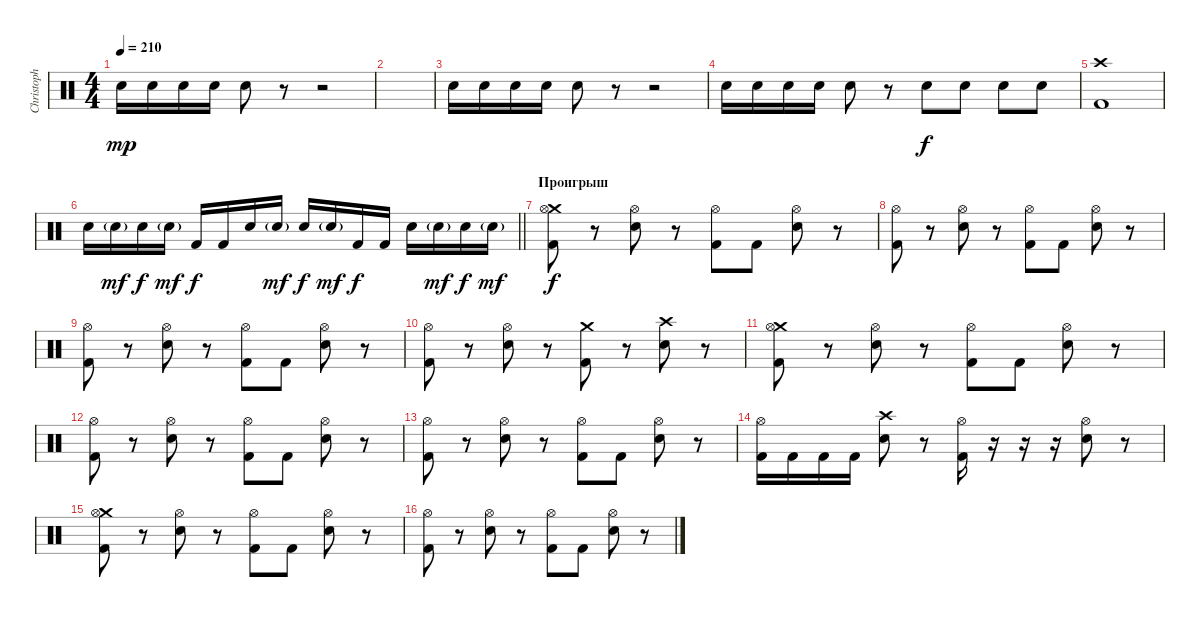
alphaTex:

\track ("Christoph Schneider" "Christoph ") {instrument percussion}
\staff {score}
\articulation defaults
\ts (4 4)
\tempo 210
\clef neutral
\ks c "Electric Snare (hit)".16{dy mp} "Electric Snare (hit)".16 "Electric Snare (hit)".16 "Electric Snare (hit)".16 "Electric Snare (hit)".8
r.8 r.2 |
|
"Electric Snare (hit)".16 "Electric Snare (hit)".16 "Electric Snare (hit)".16 "Electric Snare (hit)".16 "Electric Snare (hit)".8 r.8 r.2 |
"Electric Snare (hit)".16 "Electric Snare (hit)".16 "Electric Snare (hit)".16 "Electric Snare (hit)".16 "Electric Snare (hit)".8 r.8 "Electric Snare (hit)".8{dy f} "Electric Snare (hit)".8 "Electric Snare (hit)".8 "Electric Snare (hit)".8 |
("Crash high (hit)" "Kick (hit) 2").1 |
\barLineRight lightlight "Electric Snare (hit)".16 "Electric Snare (hit)"{g}.16{dy mf} "Electric Snare (hit)".16{dy f} "Electric Snare (hit)"{g}.16{dy mf} "Kick (hit) 2".16{dy f} "Kick (hit) 2".16 "Electric Snare (hit)".16 "Electric Snare (hit)"{g}.16{dy mf} "Electric Snare (hit)".16{dy f} "Electric Snare (hit)"{g}.16{dy mf} "Kick (hit) 2".16{dy f} "Kick (hit) 2".16 "Electric Snare (hit)".16 "Electric Snare (hit)"{g}.16{dy mf} "Electric Snare (hit)".16{dy f} "Electric Snare (hit)"{g}.16{dy mf}
|
\section ("" "Проигрыш")
("Crash medium (hit)" "Kick (hit) 2" "Hi-Hat (open)").8{dy f} r.8 ("Hi-Hat (open)" "Electric Snare (hit)").8 r.8 ("Hi-Hat (open)" "Kick (hit) 2").8 "Kick (hit) 2".8 ("Hi-Hat (open)" "Electric Snare (hit)").8 r.8 |
("Hi-Hat (open)" "Kick (hit) 2").8 r.8 ("Hi-Hat (open)" "Electric Snare (hit)").8 r.8 ("Hi-Hat (open)" "Kick (hit) 2").8 "Kick (hit) 2".8 ("Hi-Hat (open)" "Electric Snare (hit)").8 r.8 |
("Hi-Hat (open)" "Kick (hit) 2").8 r.8 ("Hi-Hat (open)" "Electric Snare (hit)").8 r.8 ("Hi-Hat (open)" "Kick (hit) 2").8 "Kick (hit) 2".8 ("Hi-Hat (open)" "Electric Snare (hit)").8 r.8 |
("Hi-Hat (open)" "Kick (hit) 2").8 r.8 ("Hi-Hat (open)" "Electric Snare (hit)").8 r.8 ("Crash medium (hit)" "Kick (hit) 2").8 r.8 ("Crash high (hit)" "Electric Snare (hit)").8 r.8 |
("Crash medium (hit)" "Kick (hit) 2" "Hi-Hat (open)").8 r.8 ("Hi-Hat (open)" "Electric Snare (hit)").8 r.8 ("Hi-Hat (open)" "Kick (hit) 2").8 "Kick (hit) 2".8 ("Hi-Hat (open)" "Electric Snare (hit)").8 r.8 |
("Hi-Hat (open)" "Kick (hit) 2").8 r.8 ("Hi-Hat (open)" "Electric Snare (hit)").8 r.8 ("Hi-Hat (open)" "Kick (hit) 2").8 "Kick (hit) 2".8 ("Hi-Hat (open)" "Electric Snare (hit)").8 r.8 |
("Hi-Hat (open)" "Kick (hit) 2").8 r.8 ("Hi-Hat (open)" "Electric Snare (hit)").8 r.8 ("Hi-Hat (open)" "Kick (hit) 2").8 "Kick (hit) 2".8 ("Hi-Hat (open)" "Electric Snare (hit)").8 r.8 |
("Hi-Hat (open)" "Kick (hit) 2").16 "Kick (hit) 2".16 "Kick (hit) 2".16 "Kick (hit) 2".16 ("Crash high (hit)" "Electric Snare (hit)").8 r.8 ("Hi-Hat (open)" "Kick (hit) 2").16 r.16 r.16 r.16 ("Hi-Hat (open)" "Electric Snare (hit)").8 r.8 |
("Crash medium (hit)" "Kick (hit) 2" "Hi-Hat (open)").8 r.8 ("Hi-Hat (open)" "Electric Snare (hit)").8 r.8 ("Hi-Hat (open)" "Kick (hit) 2").8 "Kick (hit) 2".8 ("Hi-Hat (open)" "Electric Snare (hit)").8 r.8 |
("Hi-Hat (open)" "Kick (hit) 2").8 r.8 ("Hi-Hat (open)" "Electric Snare (hit)").8 r.8 ("Hi-Hat (open)" "Kick (hit) 2").8 "Kick (hit) 2".8 ("Hi-Hat (open)" "Electric Snare (hit)").8 r.8
